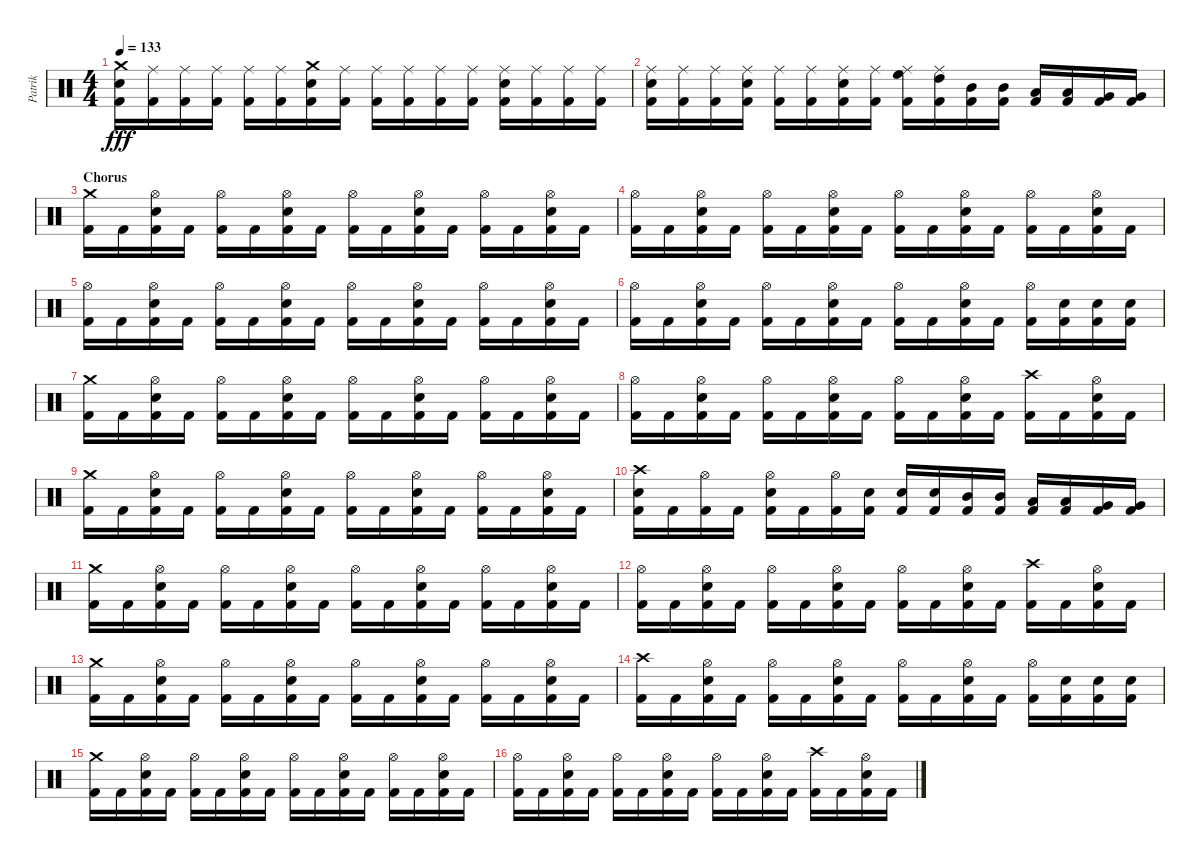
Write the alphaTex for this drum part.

\track ("Patrik" "Patrik") {instrument percussion}
\staff {score}
\articulation defaults
\ts (4 4)
\tempo 133
\clef neutral
\ks c
("Crash medium (hit)" "Electric Snare (hit)" "Kick (hit) 2").16{dy fff} ("Ride (middle)" "Kick (hit) 2").16 ("Ride (middle)" "Kick (hit) 2").16 ("Ride (middle)" "Kick (hit) 2").16 ("Ride (middle)" "Kick (hit) 2").16 ("Ride (middle)" "Kick (hit) 2").16 ("Crash medium (hit)" "Electric Snare (hit)" "Kick (hit) 2").16 ("Ride (middle)" "Kick (hit) 2").16 ("Ride (middle)" "Kick (hit) 2").16 ("Ride (middle)" "Kick (hit) 2").16 ("Ride (middle)" "Kick (hit) 2").16 ("Ride (middle)" "Kick (hit) 2").16 ("Ride (middle)" "Electric Snare (hit)" "Kick (hit) 2").16 ("Ride (middle)" "Kick (hit) 2").16 ("Ride (middle)" "Kick (hit) 2").16 ("Ride (middle)" "Kick (hit) 2").16 |
("Ride (middle)" "Electric Snare (hit)" "Kick (hit) 2").16 ("Ride (middle)" "Kick (hit) 2").16 ("Ride (middle)" "Kick (hit) 2").16 ("Ride (middle)" "Electric Snare (hit)" "Kick (hit) 2").16 ("Ride (middle)" "Kick (hit) 2").16 ("Ride (middle)" "Kick (hit) 2").16 ("Ride (middle)" "Electric Snare (hit)" "Kick (hit) 2").16 ("Ride (middle)" "Kick (hit) 2").16 ("Ride (middle)" "High Floor Tom (hit)" "Kick (hit) 2").16 ("Ride (middle)" "High Tom (hit)" "Kick (hit) 2").16 ("Mid Tom (hit)" "Kick (hit) 2").16 ("Mid Tom (hit)" "Kick (hit) 2").16 ("Low Tom (hit)" "Kick (hit) 2").16 ("Low Tom (hit)" "Kick (hit) 2").16 ("Very Low Tom (hit)" "Kick (hit) 2").16 ("Very Low Tom (hit)" "Kick (hit) 2").16 |
\section ("" "Chorus")
("Crash medium (hit)" "Kick (hit) 2").16 "Kick (hit) 2".16 ("Hi-Hat (open)" "Electric Snare (hit)" "Kick (hit) 2").16 "Kick (hit) 2".16 ("Hi-Hat (open)" "Kick (hit) 2").16 "Kick (hit) 2".16 ("Hi-Hat (open)" "Electric Snare (hit)" "Kick (hit) 2").16 "Kick (hit) 2".16 ("Hi-Hat (open)" "Kick (hit) 2").16 "Kick (hit) 2".16 ("Hi-Hat (open)" "Electric Snare (hit)" "Kick (hit) 2").16 "Kick (hit) 2".16 ("Hi-Hat (open)" "Kick (hit) 2").16 "Kick (hit) 2".16 ("Hi-Hat (open)" "Electric Snare (hit)" "Kick (hit) 2").16 "Kick (hit) 2".16 |
("Hi-Hat (open)" "Kick (hit) 2").16 "Kick (hit) 2".16 ("Hi-Hat (open)" "Electric Snare (hit)" "Kick (hit) 2").16 "Kick (hit) 2".16 ("Hi-Hat (open)" "Kick (hit) 2").16 "Kick (hit) 2".16 ("Hi-Hat (open)" "Electric Snare (hit)" "Kick (hit) 2").16 "Kick (hit) 2".16 ("Hi-Hat (open)" "Kick (hit) 2").16 "Kick (hit) 2".16 ("Hi-Hat (open)" "Electric Snare (hit)" "Kick (hit) 2").16 "Kick (hit) 2".16 ("Hi-Hat (open)" "Kick (hit) 2").16 "Kick (hit) 2".16 ("Hi-Hat (open)" "Electric Snare (hit)" "Kick (hit) 2").16 "Kick (hit) 2".16 |
("Hi-Hat (open)" "Kick (hit) 2").16 "Kick (hit) 2".16 ("Hi-Hat (open)" "Electric Snare (hit)" "Kick (hit) 2").16 "Kick (hit) 2".16 ("Hi-Hat (open)" "Kick (hit) 2").16 "Kick (hit) 2".16 ("Hi-Hat (open)" "Electric Snare (hit)" "Kick (hit) 2").16 "Kick (hit) 2".16 ("Hi-Hat (open)" "Kick (hit) 2").16 "Kick (hit) 2".16 ("Hi-Hat (open)" "Electric Snare (hit)" "Kick (hit) 2").16 "Kick (hit) 2".16 ("Hi-Hat (open)" "Kick (hit) 2").16 "Kick (hit) 2".16 ("Hi-Hat (open)" "Electric Snare (hit)" "Kick (hit) 2").16 "Kick (hit) 2".16 |
("Hi-Hat (open)" "Kick (hit) 2").16 "Kick (hit) 2".16 ("Hi-Hat (open)" "Electric Snare (hit)" "Kick (hit) 2").16 "Kick (hit) 2".16 ("Hi-Hat (open)" "Kick (hit) 2").16 "Kick (hit) 2".16 ("Hi-Hat (open)" "Electric Snare (hit)" "Kick (hit) 2").16 "Kick (hit) 2".16 ("Hi-Hat (open)" "Kick (hit) 2").16 "Kick (hit) 2".16 ("Hi-Hat (open)" "Electric Snare (hit)" "Kick (hit) 2").16 "Kick (hit) 2".16 ("Hi-Hat (open)" "Kick (hit) 2").16 ("Electric Snare (hit)" "Kick (hit) 2").16 ("Electric Snare (hit)" "Kick (hit) 2").16 ("Electric Snare (hit)" "Kick (hit) 2").16 |
("Crash medium (hit)" "Kick (hit) 2").16 "Kick (hit) 2".16 ("Hi-Hat (open)" "Electric Snare (hit)" "Kick (hit) 2").16 "Kick (hit) 2".16 ("Hi-Hat (open)" "Kick (hit) 2").16 "Kick (hit) 2".16 ("Hi-Hat (open)" "Electric Snare (hit)" "Kick (hit) 2").16 "Kick (hit) 2".16 ("Hi-Hat (open)" "Kick (hit) 2").16 "Kick (hit) 2".16 ("Hi-Hat (open)" "Electric Snare (hit)" "Kick (hit) 2").16 "Kick (hit) 2".16 ("Hi-Hat (open)" "Kick (hit) 2").16 "Kick (hit) 2".16 ("Hi-Hat (open)" "Electric Snare (hit)" "Kick (hit) 2").16 "Kick (hit) 2".16 |
("Hi-Hat (open)" "Kick (hit) 2").16 "Kick (hit) 2".16 ("Hi-Hat (open)" "Electric Snare (hit)" "Kick (hit) 2").16 "Kick (hit) 2".16 ("Hi-Hat (open)" "Kick (hit) 2").16 "Kick (hit) 2".16 ("Hi-Hat (open)" "Electric Snare (hit)" "Kick (hit) 2").16 "Kick (hit) 2".16 ("Hi-Hat (open)" "Kick (hit) 2").16 "Kick (hit) 2".16 ("Hi-Hat (open)" "Electric Snare (hit)" "Kick (hit) 2").16 "Kick (hit) 2".16 ("Crash high (hit)" "Kick (hit) 2").16 "Kick (hit) 2".16 ("Hi-Hat (open)" "Electric Snare (hit)" "Kick (hit) 2").16 "Kick (hit) 2".16 |
("Crash medium (hit)" "Kick (hit) 2").16 "Kick (hit) 2".16 ("Hi-Hat (open)" "Electric Snare (hit)" "Kick (hit) 2").16 "Kick (hit) 2".16 ("Hi-Hat (open)" "Kick (hit) 2").16 "Kick (hit) 2".16 ("Hi-Hat (open)" "Electric Snare (hit)" "Kick (hit) 2").16 "Kick (hit) 2".16 ("Hi-Hat (open)" "Kick (hit) 2").16 "Kick (hit) 2".16 ("Hi-Hat (open)" "Electric Snare (hit)" "Kick (hit) 2").16 "Kick (hit) 2".16 ("Hi-Hat (open)" "Kick (hit) 2").16 "Kick (hit) 2".16 ("Hi-Hat (open)" "Electric Snare (hit)" "Kick (hit) 2").16 "Kick (hit) 2".16 |
("Crash high (hit)" "Electric Snare (hit)" "Kick (hit) 2").16 "Kick (hit) 2".16 ("Hi-Hat (open)" "Kick (hit) 2").16 "Kick (hit) 2".16 ("Hi-Hat (open)" "Electric Snare (hit)" "Kick (hit) 2").16 "Kick (hit) 2".16 ("Hi-Hat (open)" "Kick (hit) 2").16 ("Electric Snare (hit)" "Kick (hit) 2").16 ("Electric Snare (hit)" "Kick (hit) 2").16 ("Electric Snare (hit)" "Kick (hit) 2").16 ("Mid Tom (hit)" "Kick (hit) 2").16 ("Mid Tom (hit)" "Kick (hit) 2").16 ("Low Tom (hit)" "Kick (hit) 2").16 ("Low Tom (hit)" "Kick (hit) 2").16 ("Very Low Tom (hit)" "Kick (hit) 2").16 ("Very Low Tom (hit)" "Kick (hit) 2").16 |
("Crash medium (hit)" "Kick (hit) 2").16 "Kick (hit) 2".16 ("Hi-Hat (open)" "Electric Snare (hit)" "Kick (hit) 2").16 "Kick (hit) 2".16 ("Hi-Hat (open)" "Kick (hit) 2").16 "Kick (hit) 2".16 ("Hi-Hat (open)" "Electric Snare (hit)" "Kick (hit) 2").16 "Kick (hit) 2".16 ("Hi-Hat (open)" "Kick (hit) 2").16 "Kick (hit) 2".16 ("Hi-Hat (open)" "Electric Snare (hit)" "Kick (hit) 2").16 "Kick (hit) 2".16 ("Hi-Hat (open)" "Kick (hit) 2").16 "Kick (hit) 2".16 ("Hi-Hat (open)" "Electric Snare (hit)" "Kick (hit) 2").16 "Kick (hit) 2".16 |
("Hi-Hat (open)" "Kick (hit) 2").16 "Kick (hit) 2".16 ("Hi-Hat (open)" "Electric Snare (hit)" "Kick (hit) 2").16 "Kick (hit) 2".16 ("Hi-Hat (open)" "Kick (hit) 2").16 "Kick (hit) 2".16 ("Hi-Hat (open)" "Electric Snare (hit)" "Kick (hit) 2").16 "Kick (hit) 2".16 ("Hi-Hat (open)" "Kick (hit) 2").16 "Kick (hit) 2".16 ("Hi-Hat (open)" "Electric Snare (hit)" "Kick (hit) 2").16 "Kick (hit) 2".16 ("Crash high (hit)" "Kick (hit) 2").16 "Kick (hit) 2".16 ("Hi-Hat (open)" "Electric Snare (hit)" "Kick (hit) 2").16 "Kick (hit) 2".16 |
("Crash medium (hit)" "Kick (hit) 2").16 "Kick (hit) 2".16 ("Hi-Hat (open)" "Electric Snare (hit)" "Kick (hit) 2").16 "Kick (hit) 2".16 ("Hi-Hat (open)" "Kick (hit) 2").16 "Kick (hit) 2".16 ("Hi-Hat (open)" "Electric Snare (hit)" "Kick (hit) 2").16 "Kick (hit) 2".16 ("Hi-Hat (open)" "Kick (hit) 2").16 "Kick (hit) 2".16 ("Hi-Hat (open)" "Electric Snare (hit)" "Kick (hit) 2").16 "Kick (hit) 2".16 ("Hi-Hat (open)" "Kick (hit) 2").16 "Kick (hit) 2".16 ("Hi-Hat (open)" "Electric Snare (hit)" "Kick (hit) 2").16 "Kick (hit) 2".16 |
("Crash high (hit)" "Kick (hit) 2").16 "Kick (hit) 2".16 ("Hi-Hat (open)" "Electric Snare (hit)" "Kick (hit) 2").16 "Kick (hit) 2".16 ("Hi-Hat (open)" "Kick (hit) 2").16 "Kick (hit) 2".16 ("Hi-Hat (open)" "Electric Snare (hit)" "Kick (hit) 2").16 "Kick (hit) 2".16 ("Hi-Hat (open)" "Kick (hit) 2").16 "Kick (hit) 2".16 ("Hi-Hat (open)" "Electric Snare (hit)" "Kick (hit) 2").16 "Kick (hit) 2".16 ("Hi-Hat (open)" "Kick (hit) 2").16 ("Electric Snare (hit)" "Kick (hit) 2").16 ("Electric Snare (hit)" "Kick (hit) 2").16 ("Electric Snare (hit)" "Kick (hit) 2").16 |
("Crash medium (hit)" "Kick (hit) 2").16 "Kick (hit) 2".16 ("Hi-Hat (open)" "Electric Snare (hit)" "Kick (hit) 2").16 "Kick (hit) 2".16 ("Hi-Hat (open)" "Kick (hit) 2").16 "Kick (hit) 2".16 ("Hi-Hat (open)" "Electric Snare (hit)" "Kick (hit) 2").16 "Kick (hit) 2".16 ("Hi-Hat (open)" "Kick (hit) 2").16 "Kick (hit) 2".16 ("Hi-Hat (open)" "Electric Snare (hit)" "Kick (hit) 2").16 "Kick (hit) 2".16 ("Hi-Hat (open)" "Kick (hit) 2").16 "Kick (hit) 2".16 ("Hi-Hat (open)" "Electric Snare (hit)" "Kick (hit) 2").16 "Kick (hit) 2".16 |
("Hi-Hat (open)" "Kick (hit) 2").16 "Kick (hit) 2".16 ("Hi-Hat (open)" "Electric Snare (hit)" "Kick (hit) 2").16 "Kick (hit) 2".16 ("Hi-Hat (open)" "Kick (hit) 2").16 "Kick (hit) 2".16 ("Hi-Hat (open)" "Electric Snare (hit)" "Kick (hit) 2").16 "Kick (hit) 2".16 ("Hi-Hat (open)" "Kick (hit) 2").16 "Kick (hit) 2".16 ("Hi-Hat (open)" "Electric Snare (hit)" "Kick (hit) 2").16 "Kick (hit) 2".16 ("Crash high (hit)" "Kick (hit) 2").16 "Kick (hit) 2".16 ("Hi-Hat (open)" "Electric Snare (hit)" "Kick (hit) 2").16 "Kick (hit) 2".16
